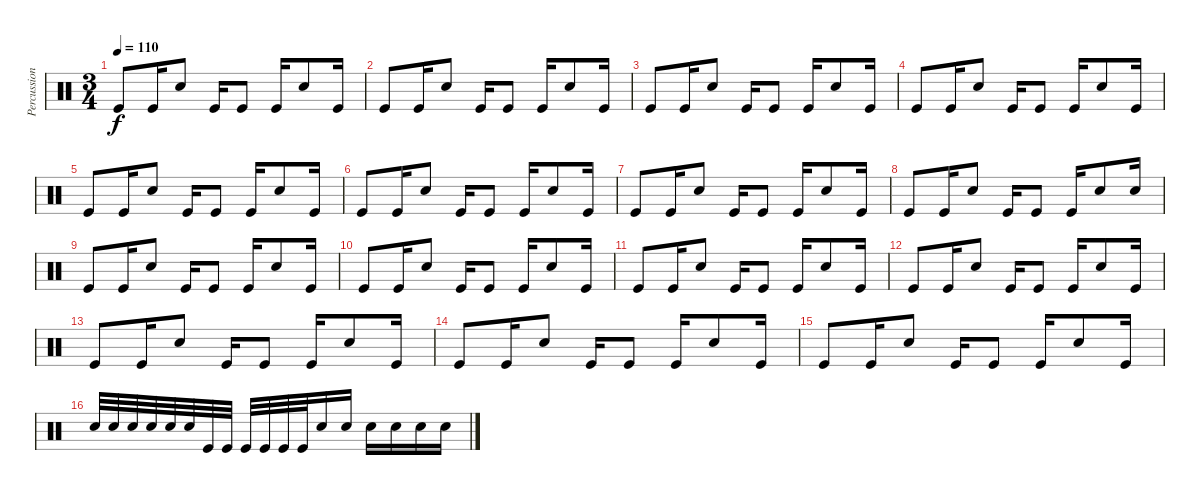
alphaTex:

\track ("Percussion" "Percussion") {instrument percussion}
\staff {score}
\articulation defaults
\ts (3 4)
\tempo 110
\clef neutral
\ks c "Kick (hit)".8{dy f} "Kick (hit)".16 "Snare (hit) 2".8 "Kick (hit)".16 "Kick (hit)".8 "Kick (hit)".16 "Snare (hit) 2".8 "Kick (hit)".16
|
"Kick (hit)".8 "Kick (hit)".16 "Snare (hit) 2".8 "Kick (hit)".16 "Kick (hit)".8 "Kick (hit)".16 "Snare (hit) 2".8 "Kick (hit)".16 |
"Kick (hit)".8 "Kick (hit)".16 "Snare (hit) 2".8 "Kick (hit)".16 "Kick (hit)".8 "Kick (hit)".16 "Snare (hit) 2".8 "Kick (hit)".16 |
"Kick (hit)".8 "Kick (hit)".16 "Snare (hit) 2".8 "Kick (hit)".16 "Kick (hit)".8 "Kick (hit)".16 "Snare (hit) 2".8 "Kick (hit)".16 |
"Kick (hit)".8 "Kick (hit)".16 "Snare (hit) 2".8 "Kick (hit)".16 "Kick (hit)".8 "Kick (hit)".16 "Snare (hit) 2".8 "Kick (hit)".16 |
"Kick (hit)".8 "Kick (hit)".16 "Snare (hit) 2".8 "Kick (hit)".16 "Kick (hit)".8 "Kick (hit)".16 "Snare (hit) 2".8 "Kick (hit)".16 |
"Kick (hit)".8 "Kick (hit)".16 "Snare (hit) 2".8 "Kick (hit)".16 "Kick (hit)".8 "Kick (hit)".16 "Snare (hit) 2".8 "Kick (hit)".16 |
"Kick (hit)".8 "Kick (hit)".16 "Snare (hit) 2".8 "Kick (hit)".16 "Kick (hit)".8 "Kick (hit)".16 "Snare (hit) 2".8 "Snare (hit) 2".16 |
"Kick (hit)".8 "Kick (hit)".16 "Snare (hit) 2".8 "Kick (hit)".16 "Kick (hit)".8 "Kick (hit)".16 "Snare (hit) 2".8 "Kick (hit)".16 |
"Kick (hit)".8 "Kick (hit)".16 "Snare (hit) 2".8 "Kick (hit)".16 "Kick (hit)".8 "Kick (hit)".16 "Snare (hit) 2".8 "Kick (hit)".16 |
"Kick (hit)".8 "Kick (hit)".16 "Snare (hit) 2".8 "Kick (hit)".16 "Kick (hit)".8 "Kick (hit)".16 "Snare (hit) 2".8 "Kick (hit)".16 |
"Kick (hit)".8 "Kick (hit)".16 "Snare (hit) 2".8 "Kick (hit)".16 "Kick (hit)".8 "Kick (hit)".16 "Snare (hit) 2".8 "Kick (hit)".16 |
"Kick (hit)".8 "Kick (hit)".16 "Snare (hit) 2".8 "Kick (hit)".16 "Kick (hit)".8 "Kick (hit)".16 "Snare (hit) 2".8 "Kick (hit)".16 |
"Kick (hit)".8 "Kick (hit)".16 "Snare (hit) 2".8 "Kick (hit)".16 "Kick (hit)".8 "Kick (hit)".16 "Snare (hit) 2".8 "Kick (hit)".16 |
"Kick (hit)".8 "Kick (hit)".16 "Snare (hit) 2".8 "Kick (hit)".16 "Kick (hit)".8 "Kick (hit)".16 "Snare (hit) 2".8 "Kick (hit)".16 |
"Snare (hit) 2".32 "Snare (hit) 2".32 "Snare (hit) 2".32 "Snare (hit) 2".32 "Snare (hit) 2".32 "Snare (hit) 2".32 "Kick (hit)".32 "Kick (hit)".32 "Kick (hit)".32 "Kick (hit)".32 "Kick (hit)".32 "Kick (hit)".32 "Snare (hit) 2".16 "Snare (hit) 2".16 "Snare (hit) 2".16 "Snare (hit) 2".16 "Snare (hit) 2".16 "Snare (hit) 2".16
